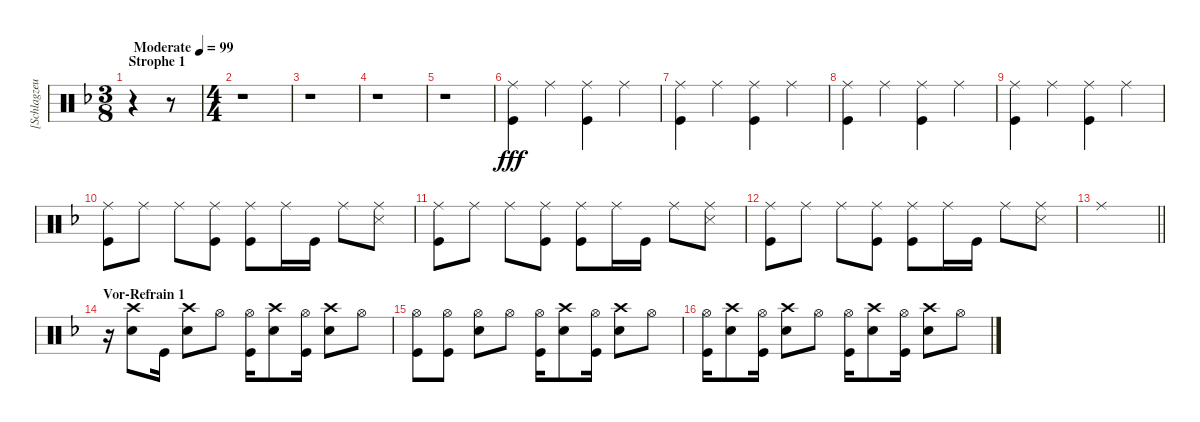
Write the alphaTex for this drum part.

\track ("[Schlagzeug]" "[Schlagzeu") {instrument percussion}
\staff {score}
\articulation defaults
\ts (3 8)
\section ("" "Strophe 1")
\tempo (99 "Moderate")
\clef neutral
\ks dminor
r.4{dy fff} r.8 |
\ts (4 4)
r.1 |
r.1 |
r.1 |
r.1 |
("Ride (middle)" "Kick (hit)").4 "Ride (middle)".4 ("Ride (middle)" "Kick (hit)").4 "Ride (middle)".4 |
("Ride (middle)" "Kick (hit)").4 "Ride (middle)".4 ("Ride (middle)" "Kick (hit)").4 "Ride (middle)".4 |
("Ride (middle)" "Kick (hit)").4 "Ride (middle)".4 ("Ride (middle)" "Kick (hit)").4 "Ride (middle)".4 |
("Ride (middle)" "Kick (hit)").4 "Ride (middle)".4 ("Ride (middle)" "Kick (hit)").4 "Ride (middle)".4 |
("Ride (middle)" "Kick (hit)").8 "Ride (middle)".8 "Ride (middle)".8 ("Ride (middle)" "Kick (hit)").8 ("Ride (middle)" "Kick (hit)").8 "Ride (middle)".16 "Kick (hit)".16 "Ride (middle)".8 ("Ride (middle)" "Snare (side stick) 3").8 |
("Ride (middle)" "Kick (hit)").8 "Ride (middle)".8 "Ride (middle)".8 ("Ride (middle)" "Kick (hit)").8 ("Ride (middle)" "Kick (hit)").8 "Ride (middle)".16 "Kick (hit)".16 "Ride (middle)".8 ("Ride (middle)" "Snare (side stick) 3").8 |
("Ride (middle)" "Kick (hit)").8 "Ride (middle)".8 "Ride (middle)".8 ("Ride (middle)" "Kick (hit)").8 ("Ride (middle)" "Kick (hit)").8 "Ride (middle)".16 "Kick (hit)".16 "Ride (middle)".8 ("Ride (middle)" "Snare (side stick) 3").8 |
\barLineRight lightlight "Ride (middle)".1
|
\section ("" "Vor-Refrain 1")
r.16 ("Crash high (hit)" "Electric Snare (hit)").8 "Kick (hit)".16 ("Crash high (hit)" "Electric Snare (hit)").8 "Hi-Hat (open)".8 ("Hi-Hat (open)" "Kick (hit)").16 ("Crash high (hit)" "Electric Snare (hit)").8 ("Hi-Hat (open)" "Kick (hit)").16 ("Crash high (hit)" "Electric Snare (hit)").8 "Hi-Hat (open)".8 |
("Hi-Hat (open)" "Kick (hit)").8 ("Hi-Hat (open)" "Kick (hit)").8 ("Hi-Hat (open)" "Electric Snare (hit)").8 "Hi-Hat (open)".8 ("Hi-Hat (open)" "Kick (hit)").16 ("Crash high (hit)" "Electric Snare (hit)").8 ("Hi-Hat (open)" "Kick (hit)").16 ("Crash high (hit)" "Electric Snare (hit)").8 "Hi-Hat (open)".8 |
("Hi-Hat (open)" "Kick (hit)").16 ("Crash high (hit)" "Electric Snare (hit)").8 ("Hi-Hat (open)" "Kick (hit)").16 ("Crash high (hit)" "Electric Snare (hit)").8 "Hi-Hat (open)".8 ("Hi-Hat (open)" "Kick (hit)").16 ("Crash high (hit)" "Electric Snare (hit)").8 ("Hi-Hat (open)" "Kick (hit)").16 ("Crash high (hit)" "Electric Snare (hit)").8 "Hi-Hat (open)".8
